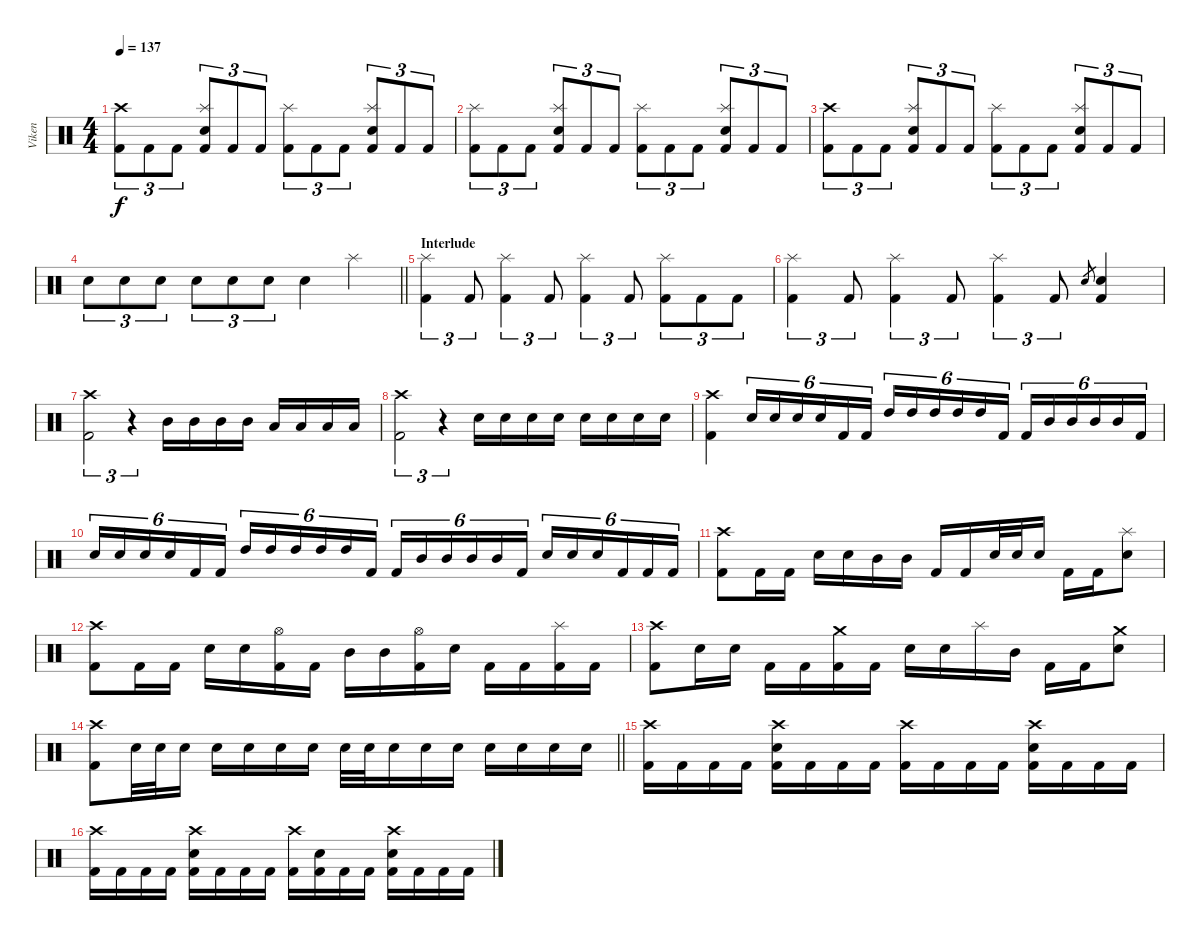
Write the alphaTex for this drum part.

\track ("Viken" "Viken") {instrument percussion}
\staff {score}
\articulation defaults
\ts (4 4)
\tempo 137
\clef neutral
\ks c
("Crash high (hit)" "Kick (hit) 2").8{tu (3 2) dy f} "Kick (hit) 2".8{tu (3 2)} "Kick (hit) 2".8{tu (3 2)} ("Splash (hit)" "Electric Snare (hit)" "Kick (hit) 2").8{tu (3 2)} "Kick (hit) 2".8{tu (3 2)} "Kick (hit) 2".8{tu (3 2)} ("Splash (hit)" "Kick (hit) 2").8{tu (3 2)} "Kick (hit) 2".8{tu (3 2)} "Kick (hit) 2".8{tu (3 2)} ("Splash (hit)" "Electric Snare (hit)" "Kick (hit) 2").8{tu (3 2)} "Kick (hit) 2".8{tu (3 2)} "Kick (hit) 2".8{tu (3 2)} |
("Splash (hit)" "Kick (hit) 2").8{tu (3 2)} "Kick (hit) 2".8{tu (3 2)} "Kick (hit) 2".8{tu (3 2)} ("Splash (hit)" "Electric Snare (hit)" "Kick (hit) 2").8{tu (3 2)} "Kick (hit) 2".8{tu (3 2)} "Kick (hit) 2".8{tu (3 2)} ("Splash (hit)" "Kick (hit) 2").8{tu (3 2)} "Kick (hit) 2".8{tu (3 2)} "Kick (hit) 2".8{tu (3 2)} ("Splash (hit)" "Electric Snare (hit)" "Kick (hit) 2").8{tu (3 2)} "Kick (hit) 2".8{tu (3 2)} "Kick (hit) 2".8{tu (3 2)} |
("Crash high (hit)" "Kick (hit) 2").8{tu (3 2)} "Kick (hit) 2".8{tu (3 2)} "Kick (hit) 2".8{tu (3 2)} ("Splash (hit)" "Electric Snare (hit)" "Kick (hit) 2").8{tu (3 2)} "Kick (hit) 2".8{tu (3 2)} "Kick (hit) 2".8{tu (3 2)} ("Splash (hit)" "Kick (hit) 2").8{tu (3 2)} "Kick (hit) 2".8{tu (3 2)} "Kick (hit) 2".8{tu (3 2)} ("Splash (hit)" "Electric Snare (hit)" "Kick (hit) 2").8{tu (3 2)} "Kick (hit) 2".8{tu (3 2)} "Kick (hit) 2".8{tu (3 2)} |
\barLineRight lightlight "Electric Snare (hit)".8{tu (3 2)} "Electric Snare (hit)".8{tu (3 2)} "Electric Snare (hit)".8{tu (3 2)} "Electric Snare (hit)".8{tu (3 2)} "Electric Snare (hit)".8{tu (3 2)} "Electric Snare (hit)".8{tu (3 2)} "Electric Snare (hit)".4 "Splash (hit)".4
|
\section ("" "Interlude")
("Splash (hit)" "Kick (hit) 2").4{tu (3 2)} "Kick (hit) 2".8{tu (3 2)} ("Splash (hit)" "Kick (hit) 2").4{tu (3 2)} "Kick (hit) 2".8{tu (3 2)} ("Splash (hit)" "Kick (hit) 2").4{tu (3 2)} "Kick (hit) 2".8{tu (3 2)} ("Splash (hit)" "Kick (hit) 2").8{tu (3 2)} "Kick (hit) 2".8{tu (3 2)} "Kick (hit) 2".8{tu (3 2)} |
("Splash (hit)" "Kick (hit) 2").4{tu (3 2)} "Kick (hit) 2".8{tu (3 2)} ("Splash (hit)" "Kick (hit) 2").4{tu (3 2)} "Kick (hit) 2".8{tu (3 2)} ("Splash (hit)" "Kick (hit) 2").4{tu (3 2)} "Kick (hit) 2".8{tu (3 2)} "Electric Snare (hit)".8{gr} ("Electric Snare (hit)" "Kick (hit) 2").4 |
("Crash high (hit)" "Kick (hit) 2").2{tu (3 2)} r.4{tu (3 2)} "Mid Tom (hit)".16 "Mid Tom (hit)".16 "Mid Tom (hit)".16 "Mid Tom (hit)".16 "Low Tom (hit)".16 "Low Tom (hit)".16 "Low Tom (hit)".16 "Low Tom (hit)".16 |
("Crash high (hit)" "Kick (hit) 2").2{tu (3 2)} r.4{tu (3 2)} "Electric Snare (hit)".16 "Electric Snare (hit)".16 "Electric Snare (hit)".16 "Electric Snare (hit)".16 "Electric Snare (hit)".16 "Electric Snare (hit)".16 "Electric Snare (hit)".16 "Electric Snare (hit)".16 |
("Crash high (hit)" "Kick (hit) 2").4 "Electric Snare (hit)".16{tu (6 4)} "Electric Snare (hit)".16{tu (6 4)} "Electric Snare (hit)".16{tu (6 4)} "Electric Snare (hit)".16{tu (6 4)} "Kick (hit) 2".16{tu (6 4)} "Kick (hit) 2".16{tu (6 4)} "High Tom (hit)".16{tu (6 4)} "High Tom (hit)".16{tu (6 4)} "High Tom (hit)".16{tu (6 4)} "High Tom (hit)".16{tu (6 4)} "High Tom (hit)".16{tu (6 4)} "Kick (hit) 2".16{tu (6 4)} "Kick (hit) 2".16{tu (6 4)} "Mid Tom (hit)".16{tu (6 4)} "Mid Tom (hit)".16{tu (6 4)} "Mid Tom (hit)".16{tu (6 4)} "Mid Tom (hit)".16{tu (6 4)} "Kick (hit) 2".16{tu (6 4)} |
"Electric Snare (hit)".16{tu (6 4)} "Electric Snare (hit)".16{tu (6 4)} "Electric Snare (hit)".16{tu (6 4)} "Electric Snare (hit)".16{tu (6 4)} "Kick (hit) 2".16{tu (6 4)} "Kick (hit) 2".16{tu (6 4)} "High Tom (hit)".16{tu (6 4)} "High Tom (hit)".16{tu (6 4)} "High Tom (hit)".16{tu (6 4)} "High Tom (hit)".16{tu (6 4)} "High Tom (hit)".16{tu (6 4)} "Kick (hit) 2".16{tu (6 4)} "Kick (hit) 2".16{tu (6 4)} "Mid Tom (hit)".16{tu (6 4)} "Mid Tom (hit)".16{tu (6 4)} "Mid Tom (hit)".16{tu (6 4)} "Mid Tom (hit)".16{tu (6 4)} "Kick (hit) 2".16{tu (6 4)} "Electric Snare (hit)".16{tu (6 4)} "Electric Snare (hit)".16{tu (6 4)} "Electric Snare (hit)".16{tu (6 4)} "Kick (hit) 2".16{tu (6 4)} "Kick (hit) 2".16{tu (6 4)} "Kick (hit) 2".16{tu (6 4)} |
("Crash high (hit)" "Kick (hit) 2").8 "Kick (hit) 2".16 "Kick (hit) 2".16 "Electric Snare (hit)".16 "Electric Snare (hit)".16 "Mid Tom (hit)".16 "Mid Tom (hit)".16 "Kick (hit) 2".16 "Kick (hit) 2".16 "Electric Snare (hit)".32 "Electric Snare (hit)".32 "Electric Snare (hit)".16 "Kick (hit) 2".16 "Kick (hit) 2".16 ("Splash (hit)" "Electric Snare (hit)").8 |
("Crash high (hit)" "Kick (hit) 2").8 "Kick (hit) 2".16 "Kick (hit) 2".16 "Electric Snare (hit)".16 "Electric Snare (hit)".16 ("Hi-Hat (open)" "Kick (hit) 2").16 "Kick (hit) 2".16 "Mid Tom (hit)".16 "Mid Tom (hit)".16 ("Hi-Hat (open)" "Kick (hit) 2").16 "Electric Snare (hit)".16 "Kick (hit) 2".16 "Kick (hit) 2".16 ("Splash (hit)" "Kick (hit) 2").16 "Kick (hit) 2".16 |
("Crash high (hit)" "Kick (hit) 2").8 "Electric Snare (hit)".16 "Electric Snare (hit)".16 "Kick (hit) 2".16 "Kick (hit) 2".16 ("Crash medium (hit)" "Kick (hit) 2").16 "Kick (hit) 2".16 "Electric Snare (hit)".16 "Electric Snare (hit)".16 "Splash (hit)".16 "Mid Tom (hit)".16 "Kick (hit) 2".16 "Kick (hit) 2".16 ("Crash medium (hit)" "Electric Snare (hit)").8 |
\barLineRight lightlight
("Crash high (hit)" "Kick (hit) 2").8 "Electric Snare (hit)".32 "Electric Snare (hit)".32 "Electric Snare (hit)".16 "Electric Snare (hit)".16 "Electric Snare (hit)".16 "Electric Snare (hit)".16 "Electric Snare (hit)".16 "Electric Snare (hit)".32 "Electric Snare (hit)".32 "Electric Snare (hit)".16 "Electric Snare (hit)".16 "Electric Snare (hit)".16 "Electric Snare (hit)".16 "Electric Snare (hit)".16 "Electric Snare (hit)".16 "Electric Snare (hit)".16 |
\section ("" "")
("Crash high (hit)" "Kick (hit) 2").16 "Kick (hit) 2".16 "Kick (hit) 2".16 "Kick (hit) 2".16 ("Crash high (hit)" "Electric Snare (hit)" "Kick (hit) 2").16 "Kick (hit) 2".16 "Kick (hit) 2".16 "Kick (hit) 2".16 ("Crash high (hit)" "Kick (hit) 2").16 "Kick (hit) 2".16 "Kick (hit) 2".16 "Kick (hit) 2".16 ("Crash high (hit)" "Electric Snare (hit)" "Kick (hit) 2").16 "Kick (hit) 2".16 "Kick (hit) 2".16 "Kick (hit) 2".16 |
("Crash high (hit)" "Kick (hit) 2").16 "Kick (hit) 2".16 "Kick (hit) 2".16 "Kick (hit) 2".16 ("Crash high (hit)" "Electric Snare (hit)" "Kick (hit) 2").16 "Kick (hit) 2".16 "Kick (hit) 2".16 "Kick (hit) 2".16 ("Crash high (hit)" "Kick (hit) 2").16 ("Electric Snare (hit)" "Kick (hit) 2").16 "Kick (hit) 2".16 "Kick (hit) 2".16 ("Crash high (hit)" "Electric Snare (hit)" "Kick (hit) 2").16 "Kick (hit) 2".16 "Kick (hit) 2".16 "Kick (hit) 2".16
